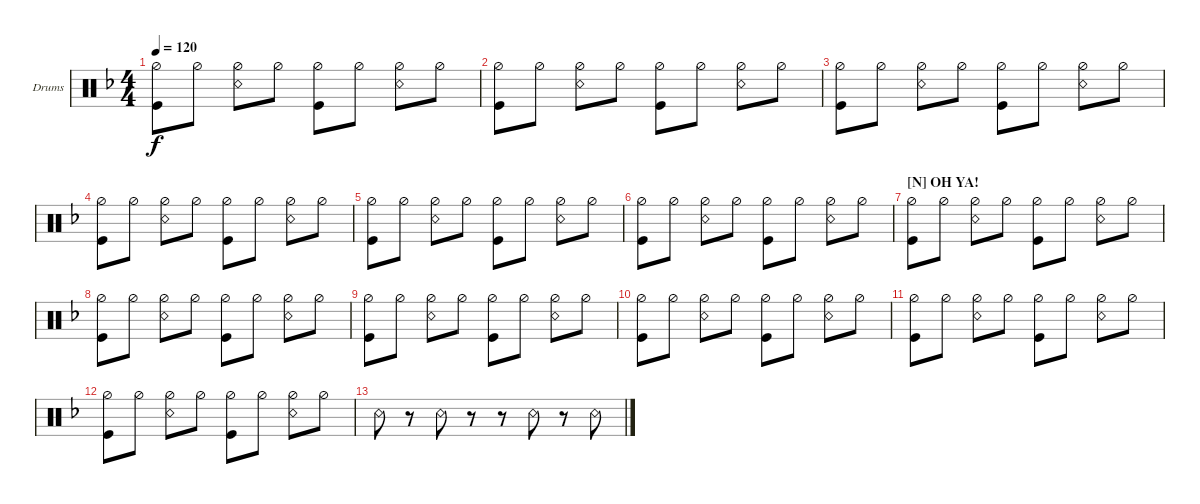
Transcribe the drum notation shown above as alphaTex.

\bracketExtendMode groupsimilarinstruments
\firstSystemTrackNameOrientation horizontal
\otherSystemsTrackNameOrientation horizontal
\track ("Drumkit" "Drums") {instrument percussion}
\staff {score}
\articulation defaults
\ts (4 4)
\tempo 120
\clef neutral
\ks f
("Kick (hit)" "Hi-Hat (half)").8{dy f} "Hi-Hat (half)".8 ("Hi-Hat (half)" "Snare (rim shot)").8 "Hi-Hat (half)".8 ("Hi-Hat (half)" "Kick (hit)").8 "Hi-Hat (half)".8 ("Hi-Hat (half)" "Snare (rim shot)").8 "Hi-Hat (half)".8 |
("Kick (hit)" "Hi-Hat (half)").8 "Hi-Hat (half)".8 ("Hi-Hat (half)" "Snare (rim shot)").8 "Hi-Hat (half)".8 ("Hi-Hat (half)" "Kick (hit)").8 "Hi-Hat (half)".8 ("Hi-Hat (half)" "Snare (rim shot)").8 "Hi-Hat (half)".8 |
("Kick (hit)" "Hi-Hat (half)").8 "Hi-Hat (half)".8 ("Hi-Hat (half)" "Snare (rim shot)").8 "Hi-Hat (half)".8 ("Hi-Hat (half)" "Kick (hit)").8 "Hi-Hat (half)".8 ("Hi-Hat (half)" "Snare (rim shot)").8 "Hi-Hat (half)".8 |
("Kick (hit)" "Hi-Hat (half)").8 "Hi-Hat (half)".8 ("Hi-Hat (half)" "Snare (rim shot)").8 "Hi-Hat (half)".8 ("Hi-Hat (half)" "Kick (hit)").8 "Hi-Hat (half)".8 ("Hi-Hat (half)" "Snare (rim shot)").8 "Hi-Hat (half)".8 |
("Kick (hit)" "Hi-Hat (half)").8 "Hi-Hat (half)".8 ("Hi-Hat (half)" "Snare (rim shot)").8 "Hi-Hat (half)".8 ("Hi-Hat (half)" "Kick (hit)").8 "Hi-Hat (half)".8 ("Hi-Hat (half)" "Snare (rim shot)").8 "Hi-Hat (half)".8 |
("Kick (hit)" "Hi-Hat (half)").8 "Hi-Hat (half)".8 ("Hi-Hat (half)" "Snare (rim shot)").8 "Hi-Hat (half)".8 ("Hi-Hat (half)" "Kick (hit)").8 "Hi-Hat (half)".8 ("Hi-Hat (half)" "Snare (rim shot)").8 "Hi-Hat (half)".8 |
\section ("N" "OH YA!")
("Kick (hit)" "Hi-Hat (half)").8 "Hi-Hat (half)".8 ("Hi-Hat (half)" "Snare (rim shot)").8 "Hi-Hat (half)".8 ("Hi-Hat (half)" "Kick (hit)").8 "Hi-Hat (half)".8 ("Hi-Hat (half)" "Snare (rim shot)").8 "Hi-Hat (half)".8 |
("Kick (hit)" "Hi-Hat (half)").8 "Hi-Hat (half)".8 ("Hi-Hat (half)" "Snare (rim shot)").8 "Hi-Hat (half)".8 ("Hi-Hat (half)" "Kick (hit)").8 "Hi-Hat (half)".8 ("Hi-Hat (half)" "Snare (rim shot)").8 "Hi-Hat (half)".8 |
("Kick (hit)" "Hi-Hat (half)").8 "Hi-Hat (half)".8 ("Hi-Hat (half)" "Snare (rim shot)").8 "Hi-Hat (half)".8 ("Hi-Hat (half)" "Kick (hit)").8 "Hi-Hat (half)".8 ("Hi-Hat (half)" "Snare (rim shot)").8 "Hi-Hat (half)".8 |
("Kick (hit)" "Hi-Hat (half)").8 "Hi-Hat (half)".8 ("Hi-Hat (half)" "Snare (rim shot)").8 "Hi-Hat (half)".8 ("Hi-Hat (half)" "Kick (hit)").8 "Hi-Hat (half)".8 ("Hi-Hat (half)" "Snare (rim shot)").8 "Hi-Hat (half)".8 |
("Kick (hit)" "Hi-Hat (half)").8 "Hi-Hat (half)".8 ("Hi-Hat (half)" "Snare (rim shot)").8 "Hi-Hat (half)".8 ("Hi-Hat (half)" "Kick (hit)").8 "Hi-Hat (half)".8 ("Hi-Hat (half)" "Snare (rim shot)").8 "Hi-Hat (half)".8 |
("Kick (hit)" "Hi-Hat (half)").8 "Hi-Hat (half)".8 ("Hi-Hat (half)" "Snare (rim shot)").8 "Hi-Hat (half)".8 ("Hi-Hat (half)" "Kick (hit)").8 "Hi-Hat (half)".8 ("Hi-Hat (half)" "Snare (rim shot)").8 "Hi-Hat (half)".8 |
"Snare (rim shot)".8 r.8 "Snare (rim shot)".8 r.8 r.8 "Snare (rim shot)".8 r.8 "Snare (rim shot)".8
